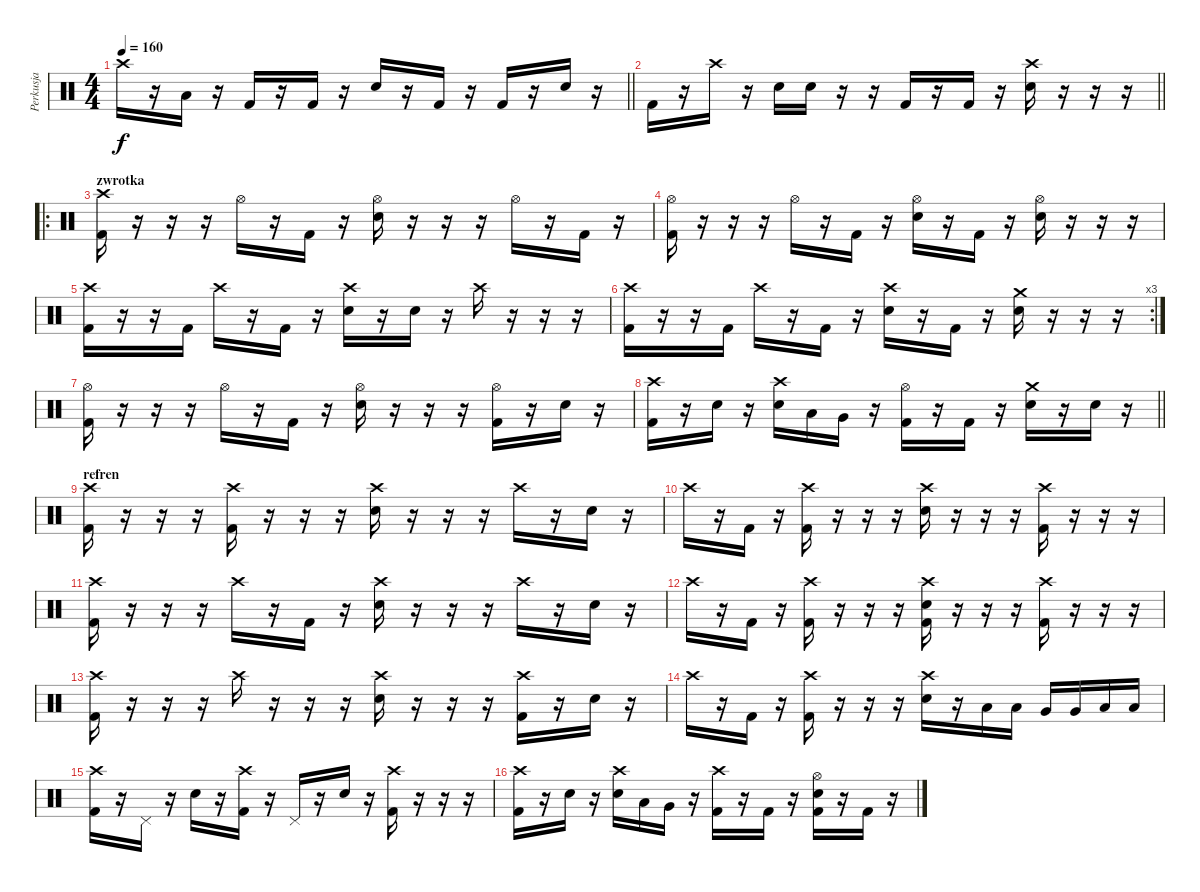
\track ("Perkusja" "Perkusja") {instrument percussion}
\staff {score}
\articulation defaults
\ts (4 4)
\tempo 160
\clef neutral
\barLineRight lightlight
\ks c "Crash high (hit)".16{dy f}
r.16 "Low Floor Tom (hit)".16 r.16 "Kick (hit) 2".16 r.16 "Kick (hit) 2".16 r.16 "Electric Snare (hit)".16 r.16 "Kick (hit) 2".16 r.16 "Kick (hit) 2".16 r.16 "Electric Snare (hit)".16 r.16 |
\barLineRight lightlight "Kick (hit) 2".16
r.16 "Crash high (hit)".16 r.16 "Electric Snare (hit)".16 "Electric Snare (hit)".16 r.16 r.16 "Kick (hit) 2".16 r.16 "Kick (hit) 2".16 r.16 ("Crash high (hit)" "Electric Snare (hit)").16 r.16 r.16 r.16 |
\ro
\section ("" "zwrotka")
("Crash high (hit)" "Kick (hit) 2").16 r.16 r.16 r.16 "Hi-Hat (open)".16 r.16 "Kick (hit) 2".16 r.16 ("Hi-Hat (open)" "Electric Snare (hit)").16 r.16 r.16 r.16 "Hi-Hat (open)".16 r.16 "Kick (hit) 2".16 r.16 |
("Hi-Hat (open)" "Kick (hit) 2").16 r.16 r.16 r.16 "Hi-Hat (open)".16 r.16 "Kick (hit) 2".16 r.16 ("Hi-Hat (open)" "Electric Snare (hit)").16 r.16 "Kick (hit) 2".16 r.16 ("Hi-Hat (open)" "Electric Snare (hit)").16 r.16 r.16 r.16 |
("Crash high (hit)" "Kick (hit) 2").16 r.16 r.16 "Kick (hit) 2".16 "Crash high (hit)".16 r.16 "Kick (hit) 2".16 r.16 ("Crash high (hit)" "Electric Snare (hit)").16 r.16 "Electric Snare (hit)".16 r.16 "Crash high (hit)".16 r.16 r.16 r.16 |
\rc 3
("Crash high (hit)" "Kick (hit) 2").16 r.16 r.16 "Kick (hit) 2".16 "Crash high (hit)".16 r.16 "Kick (hit) 2".16 r.16 ("Crash high (hit)" "Electric Snare (hit)").16 r.16 "Kick (hit) 2".16 r.16 ("Crash medium (hit)" "Electric Snare (hit)").16 r.16 r.16 r.16 |
("Hi-Hat (open)" "Kick (hit) 2").16 r.16 r.16 r.16 "Hi-Hat (open)".16 r.16 "Kick (hit) 2".16 r.16 ("Hi-Hat (open)" "Electric Snare (hit)").16 r.16 r.16 r.16 ("Hi-Hat (open)" "Kick (hit) 2").16 r.16 "Electric Snare (hit)".16 r.16 |
\barLineRight lightlight
("Crash high (hit)" "Kick (hit) 2").16 r.16 "Electric Snare (hit)".16 r.16 ("Crash high (hit)" "Electric Snare (hit)").16 "Low Tom (hit)".16 "Very Low Tom (hit)".16 r.16 ("Hi-Hat (open)" "Kick (hit) 2").16 r.16 "Kick (hit) 2".16 r.16 ("Crash medium (hit)" "Electric Snare (hit)").16 r.16 "Electric Snare (hit)".16 r.16 |
\section ("" "refren")
("Crash high (hit)" "Kick (hit) 2").16 r.16 r.16 r.16 ("Crash high (hit)" "Kick (hit) 2").16 r.16 r.16 r.16 ("Crash high (hit)" "Electric Snare (hit)").16 r.16 r.16 r.16 "Crash high (hit)".16 r.16 "Electric Snare (hit)".16 r.16 |
"Crash high (hit)".16 r.16 "Kick (hit) 2".16 r.16 ("Crash high (hit)" "Kick (hit) 2").16 r.16 r.16 r.16 ("Crash high (hit)" "Electric Snare (hit)").16 r.16 r.16 r.16 ("Crash high (hit)" "Kick (hit) 2").16 r.16 r.16 r.16 |
("Crash high (hit)" "Kick (hit) 2").16 r.16 r.16 r.16 "Crash high (hit)".16 r.16 "Kick (hit) 2".16 r.16 ("Crash high (hit)" "Electric Snare (hit)").16 r.16 r.16 r.16 "Crash high (hit)".16 r.16 "Electric Snare (hit)".16 r.16 |
"Crash high (hit)".16 r.16 "Kick (hit) 2".16 r.16 ("Crash high (hit)" "Kick (hit) 2").16 r.16 r.16 r.16 ("Crash high (hit)" "Electric Snare (hit)" "Kick (hit) 2").16 r.16 r.16 r.16 ("Crash high (hit)" "Kick (hit) 2").16 r.16 r.16 r.16 |
("Crash high (hit)" "Kick (hit) 2").16 r.16 r.16 r.16 "Crash high (hit)".16 r.16 r.16 r.16 ("Crash high (hit)" "Electric Snare (hit)").16 r.16 r.16 r.16 ("Crash high (hit)" "Kick (hit) 2").16 r.16 "Electric Snare (hit)".16 r.16 |
"Crash high (hit)".16 r.16 "Kick (hit) 2".16 r.16 ("Crash high (hit)" "Kick (hit) 2").16 r.16 r.16 r.16 ("Crash high (hit)" "Electric Snare (hit)").16 r.16 "Low Tom (hit)".16 "Low Tom (hit)".16 "Very Low Tom (hit)".16 "Very Low Tom (hit)".16 "Low Floor Tom (hit)".16 "Low Floor Tom (hit)".16 |
("Crash high (hit)" "Kick (hit) 2").16 r.16 "Pedal Hi-Hat (hit)".16 r.16 "Electric Snare (hit)".16 r.16 ("Crash high (hit)" "Kick (hit) 2").16 r.16 "Pedal Hi-Hat (hit)".16 r.16 "Electric Snare (hit)".16 r.16 ("Crash high (hit)" "Kick (hit) 2").16 r.16 r.16 r.16 |
("Crash high (hit)" "Kick (hit) 2").16 r.16 "Electric Snare (hit)".16 r.16 ("Crash high (hit)" "Electric Snare (hit)").16 "Low Tom (hit)".16 "Very Low Tom (hit)".16 r.16 ("Crash high (hit)" "Kick (hit) 2").16 r.16 "Kick (hit) 2".16 r.16 ("Hi-Hat (open)" "Electric Snare (hit)" "Kick (hit) 2").16 r.16 "Kick (hit) 2".16 r.16
